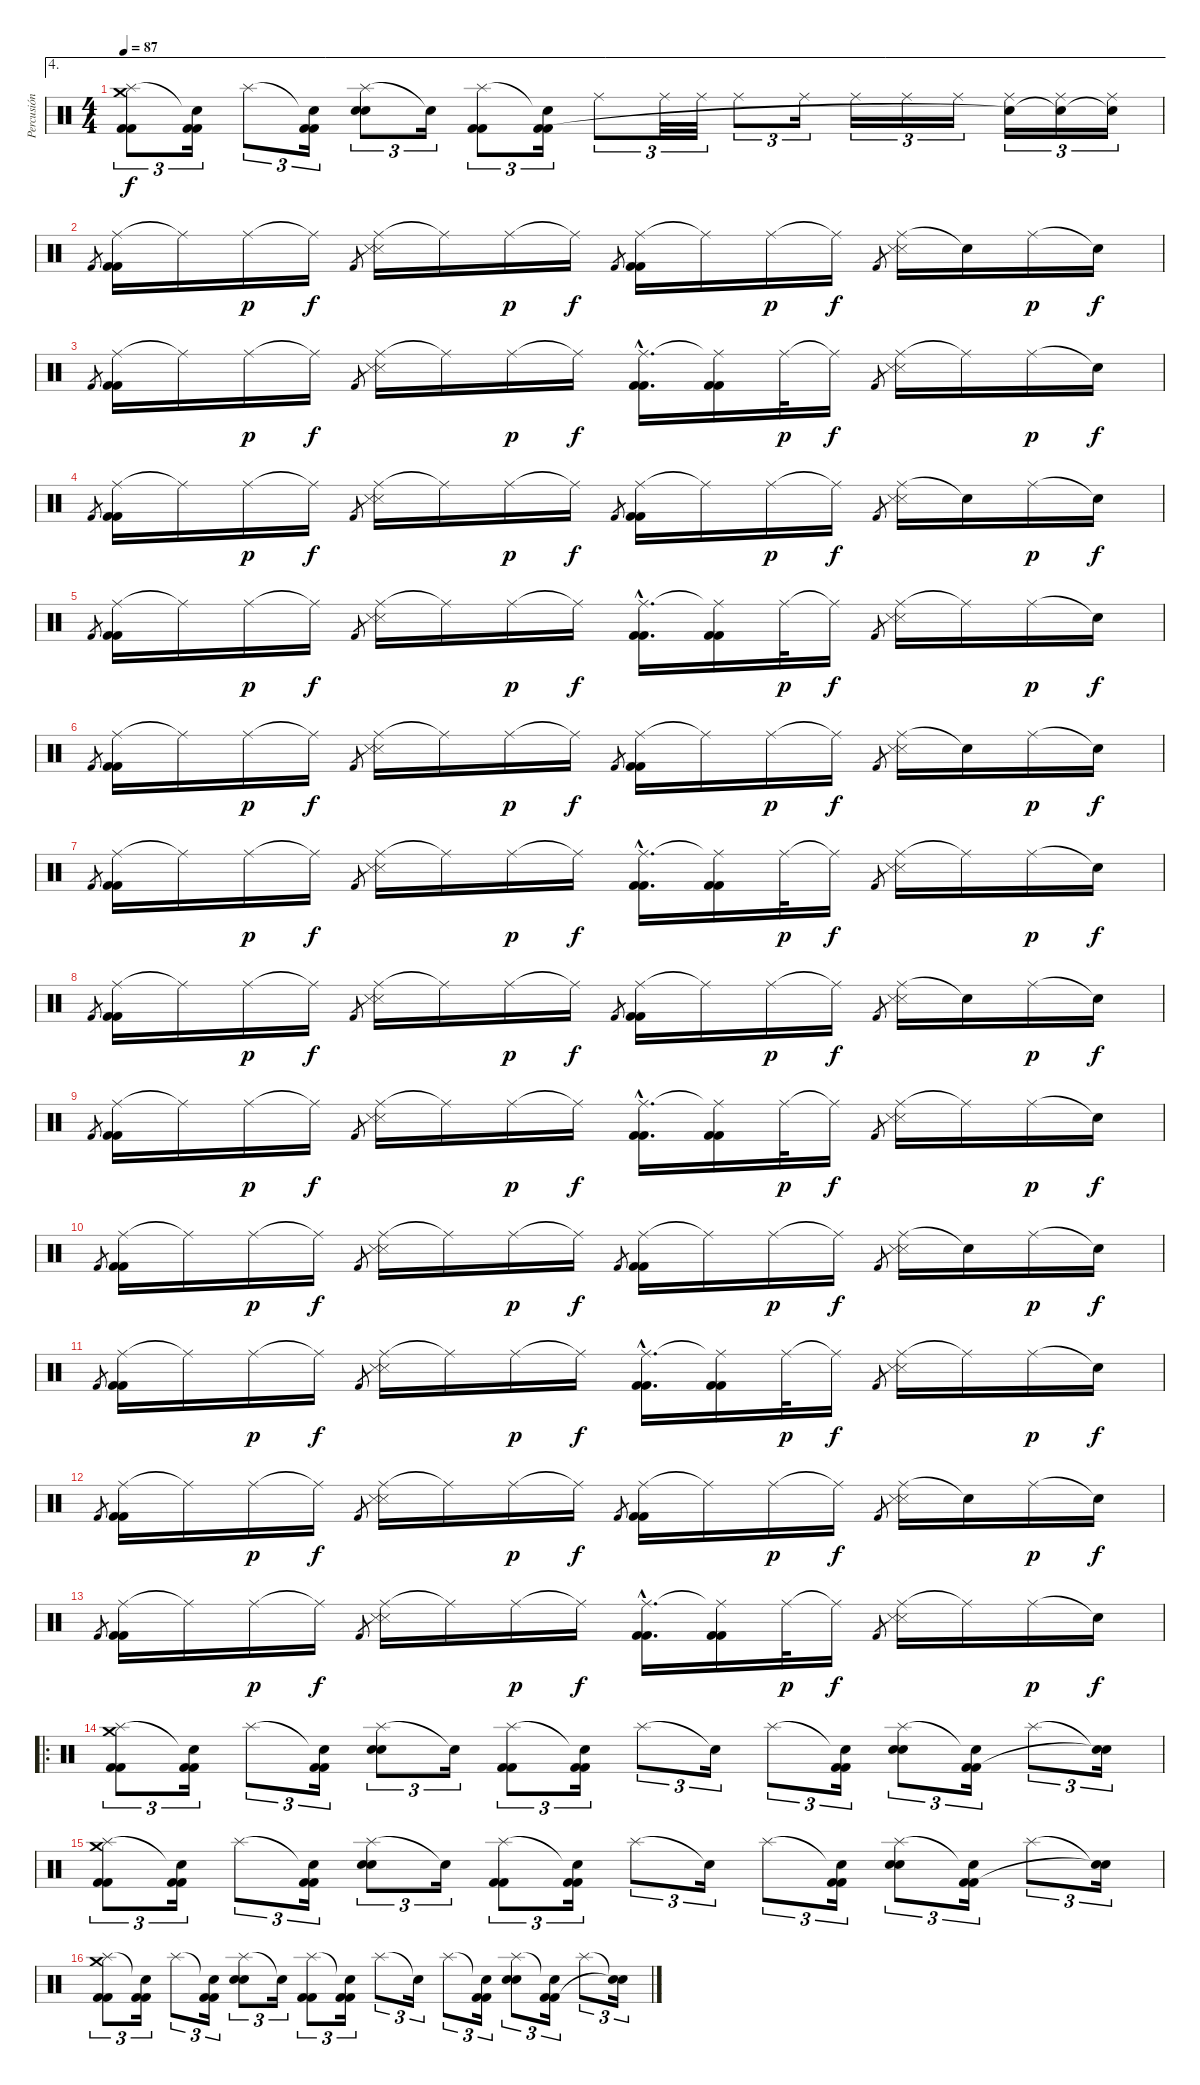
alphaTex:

\track ("Percusión" "Percusión") {instrument percussion}
\staff {score}
\articulation defaults
\ae 4
\ts (4 4)
\tempo 87
\clef neutral
\ks c
("Splash (hit)" "Crash medium (hit)" "Kick (hit) 2" "Kick (hit) 2").8{tu (3 2) dy f} ("Snare (hit)"{t} "Kick (hit) 2" "Kick (hit) 2").16{tu (3 2)} "Splash (hit)".8{tu (3 2)} ("Snare (hit)"{t} "Kick (hit) 2" "Kick (hit) 2").16{tu (3 2)} ("Splash (hit)" "Electric Snare (hit)" "Electric Snare (hit)").8{tu (3 2)} "Snare (hit)"{t}.16{tu (3 2)} ("Splash (hit)" "Kick (hit) 2" "Kick (hit) 2").8{tu (3 2)} ("Snare (hit)"{t} "Kick (hit) 2" "Kick (hit) 2").16{tu (3 2)} "Ride (middle)".8{tu (3 2)} "Ride (middle)".32{tu (3 2)} "Ride (middle)".32{tu (3 2)} "Ride (middle)".8{tu (3 2)} "Ride (middle)".16{tu (3 2)} "Ride (middle)".16{tu (3 2)} "Ride (middle)".16{tu (3 2)} "Ride (middle)".16{tu (3 2)} ("Ride (middle)" "Snare (hit)"{t}).16{tu (3 2)} ("Ride (middle)" "Snare (hit)"{t}).16{tu (3 2)} ("Ride (middle)" "Snare (hit)"{t}).16{tu (3 2)} |
"Kick (hit) 2".8{gr} ("Ride (middle)" "Kick (hit) 2" "Kick (hit) 2").16 "Ride (middle)"{t}.16 "Ride (middle)".16{dy p} "Ride (middle)"{t}.16{dy f} "Kick (hit) 2".8{gr} ("Ride (middle)" "Snare (side stick) 3" "Snare (side stick) 3").16 "Ride (middle)"{t}.16 "Ride (middle)".16{dy p} "Ride (middle)"{t}.16{dy f} "Kick (hit) 2".8{gr} ("Ride (middle)" "Kick (hit) 2" "Kick (hit) 2").16 "Ride (middle)"{t}.16 "Ride (middle)".16{dy p} "Ride (middle)"{t}.16{dy f} "Kick (hit) 2".8{gr} ("Ride (middle)" "Snare (side stick) 3" "Snare (side stick) 3").16 "Snare (hit)"{t}.16 "Ride (middle)".16{dy p} "Snare (hit)"{t}.16{dy f} |
"Kick (hit) 2".8{gr} ("Ride (middle)" "Kick (hit) 2" "Kick (hit) 2").16 "Ride (middle)"{t}.16 "Ride (middle)".16{dy p} "Ride (middle)"{t}.16{dy f} "Kick (hit) 2".8{gr} ("Ride (middle)" "Snare (side stick) 3" "Snare (side stick) 3").16 "Ride (middle)"{t}.16 "Ride (middle)".16{dy p} "Ride (middle)"{t}.16{dy f} ("Ride (middle)"{hac} "Kick (hit) 2"{hac} "Kick (hit) 2"{hac}).16{d} ("Ride (middle)"{t} "Kick (hit) 2" "Kick (hit) 2").16 "Ride (middle)".32{dy p} "Ride (middle)"{t}.16{dy f} "Kick (hit) 2".8{gr} ("Ride (middle)" "Snare (side stick) 3" "Snare (side stick) 3").16 "Ride (middle)"{t}.16 "Ride (middle)".16{dy p} "Snare (hit)"{t}.16{dy f} |
"Kick (hit) 2".8{gr} ("Ride (middle)" "Kick (hit) 2" "Kick (hit) 2").16 "Ride (middle)"{t}.16 "Ride (middle)".16{dy p} "Ride (middle)"{t}.16{dy f} "Kick (hit) 2".8{gr} ("Ride (middle)" "Snare (side stick) 3" "Snare (side stick) 3").16 "Ride (middle)"{t}.16 "Ride (middle)".16{dy p} "Ride (middle)"{t}.16{dy f} "Kick (hit) 2".8{gr} ("Ride (middle)" "Kick (hit) 2" "Kick (hit) 2").16 "Ride (middle)"{t}.16 "Ride (middle)".16{dy p} "Ride (middle)"{t}.16{dy f} "Kick (hit) 2".8{gr} ("Ride (middle)" "Snare (side stick) 3" "Snare (side stick) 3").16 "Snare (hit)"{t}.16 "Ride (middle)".16{dy p} "Snare (hit)"{t}.16{dy f} |
"Kick (hit) 2".8{gr} ("Ride (middle)" "Kick (hit) 2" "Kick (hit) 2").16 "Ride (middle)"{t}.16 "Ride (middle)".16{dy p} "Ride (middle)"{t}.16{dy f} "Kick (hit) 2".8{gr} ("Ride (middle)" "Snare (side stick) 3" "Snare (side stick) 3").16 "Ride (middle)"{t}.16 "Ride (middle)".16{dy p} "Ride (middle)"{t}.16{dy f} ("Ride (middle)"{hac} "Kick (hit) 2"{hac} "Kick (hit) 2"{hac}).16{d} ("Ride (middle)"{t} "Kick (hit) 2" "Kick (hit) 2").16 "Ride (middle)".32{dy p} "Ride (middle)"{t}.16{dy f} "Kick (hit) 2".8{gr} ("Ride (middle)" "Snare (side stick) 3" "Snare (side stick) 3").16 "Ride (middle)"{t}.16 "Ride (middle)".16{dy p} "Snare (hit)"{t}.16{dy f} |
"Kick (hit) 2".8{gr} ("Ride (middle)" "Kick (hit) 2" "Kick (hit) 2").16 "Ride (middle)"{t}.16 "Ride (middle)".16{dy p} "Ride (middle)"{t}.16{dy f} "Kick (hit) 2".8{gr} ("Ride (middle)" "Snare (side stick) 3" "Snare (side stick) 3").16 "Ride (middle)"{t}.16 "Ride (middle)".16{dy p} "Ride (middle)"{t}.16{dy f} "Kick (hit) 2".8{gr} ("Ride (middle)" "Kick (hit) 2" "Kick (hit) 2").16 "Ride (middle)"{t}.16 "Ride (middle)".16{dy p} "Ride (middle)"{t}.16{dy f} "Kick (hit) 2".8{gr} ("Ride (middle)" "Snare (side stick) 3" "Snare (side stick) 3").16 "Snare (hit)"{t}.16 "Ride (middle)".16{dy p} "Snare (hit)"{t}.16{dy f} |
"Kick (hit) 2".8{gr} ("Ride (middle)" "Kick (hit) 2" "Kick (hit) 2").16 "Ride (middle)"{t}.16 "Ride (middle)".16{dy p} "Ride (middle)"{t}.16{dy f} "Kick (hit) 2".8{gr} ("Ride (middle)" "Snare (side stick) 3" "Snare (side stick) 3").16 "Ride (middle)"{t}.16 "Ride (middle)".16{dy p} "Ride (middle)"{t}.16{dy f} ("Ride (middle)"{hac} "Kick (hit) 2"{hac} "Kick (hit) 2"{hac}).16{d} ("Ride (middle)"{t} "Kick (hit) 2" "Kick (hit) 2").16 "Ride (middle)".32{dy p} "Ride (middle)"{t}.16{dy f} "Kick (hit) 2".8{gr} ("Ride (middle)" "Snare (side stick) 3" "Snare (side stick) 3").16 "Ride (middle)"{t}.16 "Ride (middle)".16{dy p} "Snare (hit)"{t}.16{dy f} |
"Kick (hit) 2".8{gr} ("Ride (middle)" "Kick (hit) 2" "Kick (hit) 2").16 "Ride (middle)"{t}.16 "Ride (middle)".16{dy p} "Ride (middle)"{t}.16{dy f} "Kick (hit) 2".8{gr} ("Ride (middle)" "Snare (side stick) 3" "Snare (side stick) 3").16 "Ride (middle)"{t}.16 "Ride (middle)".16{dy p} "Ride (middle)"{t}.16{dy f} "Kick (hit) 2".8{gr} ("Ride (middle)" "Kick (hit) 2" "Kick (hit) 2").16 "Ride (middle)"{t}.16 "Ride (middle)".16{dy p} "Ride (middle)"{t}.16{dy f} "Kick (hit) 2".8{gr} ("Ride (middle)" "Snare (side stick) 3" "Snare (side stick) 3").16 "Snare (hit)"{t}.16 "Ride (middle)".16{dy p} "Snare (hit)"{t}.16{dy f} |
"Kick (hit) 2".8{gr} ("Ride (middle)" "Kick (hit) 2" "Kick (hit) 2").16 "Ride (middle)"{t}.16 "Ride (middle)".16{dy p} "Ride (middle)"{t}.16{dy f} "Kick (hit) 2".8{gr} ("Ride (middle)" "Snare (side stick) 3" "Snare (side stick) 3").16 "Ride (middle)"{t}.16 "Ride (middle)".16{dy p} "Ride (middle)"{t}.16{dy f} ("Ride (middle)"{hac} "Kick (hit) 2"{hac} "Kick (hit) 2"{hac}).16{d} ("Ride (middle)"{t} "Kick (hit) 2" "Kick (hit) 2").16 "Ride (middle)".32{dy p} "Ride (middle)"{t}.16{dy f} "Kick (hit) 2".8{gr} ("Ride (middle)" "Snare (side stick) 3" "Snare (side stick) 3").16 "Ride (middle)"{t}.16 "Ride (middle)".16{dy p} "Snare (hit)"{t}.16{dy f} |
"Kick (hit) 2".8{gr} ("Ride (middle)" "Kick (hit) 2" "Kick (hit) 2").16 "Ride (middle)"{t}.16 "Ride (middle)".16{dy p} "Ride (middle)"{t}.16{dy f} "Kick (hit) 2".8{gr} ("Ride (middle)" "Snare (side stick) 3" "Snare (side stick) 3").16 "Ride (middle)"{t}.16 "Ride (middle)".16{dy p} "Ride (middle)"{t}.16{dy f} "Kick (hit) 2".8{gr} ("Ride (middle)" "Kick (hit) 2" "Kick (hit) 2").16 "Ride (middle)"{t}.16 "Ride (middle)".16{dy p} "Ride (middle)"{t}.16{dy f} "Kick (hit) 2".8{gr} ("Ride (middle)" "Snare (side stick) 3" "Snare (side stick) 3").16 "Snare (hit)"{t}.16 "Ride (middle)".16{dy p} "Snare (hit)"{t}.16{dy f} |
"Kick (hit) 2".8{gr} ("Ride (middle)" "Kick (hit) 2" "Kick (hit) 2").16 "Ride (middle)"{t}.16 "Ride (middle)".16{dy p} "Ride (middle)"{t}.16{dy f} "Kick (hit) 2".8{gr} ("Ride (middle)" "Snare (side stick) 3" "Snare (side stick) 3").16 "Ride (middle)"{t}.16 "Ride (middle)".16{dy p} "Ride (middle)"{t}.16{dy f} ("Ride (middle)"{hac} "Kick (hit) 2"{hac} "Kick (hit) 2"{hac}).16{d} ("Ride (middle)"{t} "Kick (hit) 2" "Kick (hit) 2").16 "Ride (middle)".32{dy p} "Ride (middle)"{t}.16{dy f} "Kick (hit) 2".8{gr} ("Ride (middle)" "Snare (side stick) 3" "Snare (side stick) 3").16 "Ride (middle)"{t}.16 "Ride (middle)".16{dy p} "Snare (hit)"{t}.16{dy f} |
"Kick (hit) 2".8{gr} ("Ride (middle)" "Kick (hit) 2" "Kick (hit) 2").16 "Ride (middle)"{t}.16 "Ride (middle)".16{dy p} "Ride (middle)"{t}.16{dy f} "Kick (hit) 2".8{gr} ("Ride (middle)" "Snare (side stick) 3" "Snare (side stick) 3").16 "Ride (middle)"{t}.16 "Ride (middle)".16{dy p} "Ride (middle)"{t}.16{dy f} "Kick (hit) 2".8{gr} ("Ride (middle)" "Kick (hit) 2" "Kick (hit) 2").16 "Ride (middle)"{t}.16 "Ride (middle)".16{dy p} "Ride (middle)"{t}.16{dy f} "Kick (hit) 2".8{gr} ("Ride (middle)" "Snare (side stick) 3" "Snare (side stick) 3").16 "Snare (hit)"{t}.16 "Ride (middle)".16{dy p} "Snare (hit)"{t}.16{dy f} |
"Kick (hit) 2".8{gr} ("Ride (middle)" "Kick (hit) 2" "Kick (hit) 2").16 "Ride (middle)"{t}.16 "Ride (middle)".16{dy p} "Ride (middle)"{t}.16{dy f} "Kick (hit) 2".8{gr} ("Ride (middle)" "Snare (side stick) 3" "Snare (side stick) 3").16 "Ride (middle)"{t}.16 "Ride (middle)".16{dy p} "Ride (middle)"{t}.16{dy f} ("Ride (middle)"{hac} "Kick (hit) 2"{hac} "Kick (hit) 2"{hac}).16{d} ("Ride (middle)"{t} "Kick (hit) 2" "Kick (hit) 2").16 "Ride (middle)".32{dy p} "Ride (middle)"{t}.16{dy f} "Kick (hit) 2".8{gr} ("Ride (middle)" "Snare (side stick) 3" "Snare (side stick) 3").16 "Ride (middle)"{t}.16 "Ride (middle)".16{dy p} "Snare (hit)"{t}.16{dy f} |
\ro
("Splash (hit)" "Crash medium (hit)" "Kick (hit) 2" "Kick (hit) 2").8{tu (3 2)} ("Snare (hit)"{t} "Kick (hit) 2" "Kick (hit) 2").16{tu (3 2)} "Splash (hit)".8{tu (3 2)} ("Snare (hit)"{t} "Kick (hit) 2" "Kick (hit) 2").16{tu (3 2)} ("Splash (hit)" "Electric Snare (hit)" "Electric Snare (hit)").8{tu (3 2)} "Snare (hit)"{t}.16{tu (3 2)} ("Splash (hit)" "Kick (hit) 2" "Kick (hit) 2").8{tu (3 2)} ("Snare (hit)"{t} "Kick (hit) 2" "Kick (hit) 2").16{tu (3 2)} "Splash (hit)".8{tu (3 2)} "Snare (hit)"{t}.16{tu (3 2)} "Splash (hit)".8{tu (3 2)} ("Snare (hit)"{t} "Kick (hit) 2" "Kick (hit) 2").16{tu (3 2)} ("Splash (hit)" "Electric Snare (hit)" "Electric Snare (hit)").8{tu (3 2)} ("Snare (hit)"{t} "Kick (hit) 2" "Kick (hit) 2").16{tu (3 2)} "Splash (hit)".8{tu (3 2)} ("Snare (hit)"{t} "Snare (hit)"{t}).16{tu (3 2)} |
("Splash (hit)" "Crash medium (hit)" "Kick (hit) 2" "Kick (hit) 2").8{tu (3 2)} ("Snare (hit)"{t} "Kick (hit) 2" "Kick (hit) 2").16{tu (3 2)} "Splash (hit)".8{tu (3 2)} ("Snare (hit)"{t} "Kick (hit) 2" "Kick (hit) 2").16{tu (3 2)} ("Splash (hit)" "Electric Snare (hit)" "Electric Snare (hit)").8{tu (3 2)} "Snare (hit)"{t}.16{tu (3 2)} ("Splash (hit)" "Kick (hit) 2" "Kick (hit) 2").8{tu (3 2)} ("Snare (hit)"{t} "Kick (hit) 2" "Kick (hit) 2").16{tu (3 2)} "Splash (hit)".8{tu (3 2)} "Snare (hit)"{t}.16{tu (3 2)} "Splash (hit)".8{tu (3 2)} ("Snare (hit)"{t} "Kick (hit) 2" "Kick (hit) 2").16{tu (3 2)} ("Splash (hit)" "Electric Snare (hit)" "Electric Snare (hit)").8{tu (3 2)} ("Snare (hit)"{t} "Kick (hit) 2" "Kick (hit) 2").16{tu (3 2)} "Splash (hit)".8{tu (3 2)} ("Snare (hit)"{t} "Snare (hit)"{t}).16{tu (3 2)} |
("Splash (hit)" "Crash medium (hit)" "Kick (hit) 2" "Kick (hit) 2").8{tu (3 2)} ("Snare (hit)"{t} "Kick (hit) 2" "Kick (hit) 2").16{tu (3 2)} "Splash (hit)".8{tu (3 2)} ("Snare (hit)"{t} "Kick (hit) 2" "Kick (hit) 2").16{tu (3 2)} ("Splash (hit)" "Electric Snare (hit)" "Electric Snare (hit)").8{tu (3 2)} "Snare (hit)"{t}.16{tu (3 2)} ("Splash (hit)" "Kick (hit) 2" "Kick (hit) 2").8{tu (3 2)} ("Snare (hit)"{t} "Kick (hit) 2" "Kick (hit) 2").16{tu (3 2)} "Splash (hit)".8{tu (3 2)} "Snare (hit)"{t}.16{tu (3 2)} "Splash (hit)".8{tu (3 2)} ("Snare (hit)"{t} "Kick (hit) 2" "Kick (hit) 2").16{tu (3 2)} ("Splash (hit)" "Electric Snare (hit)" "Electric Snare (hit)").8{tu (3 2)} ("Snare (hit)"{t} "Kick (hit) 2" "Kick (hit) 2").16{tu (3 2)} "Splash (hit)".8{tu (3 2)} ("Snare (hit)"{t} "Snare (hit)"{t}).16{tu (3 2)}
